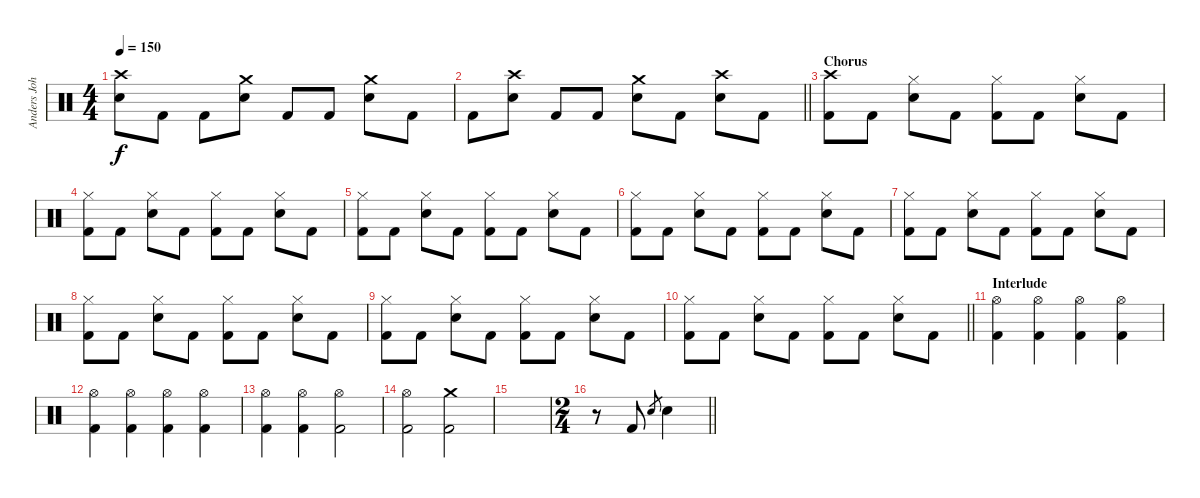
\track ("Anders Johansson" "Anders Joh") {instrument percussion}
\staff {score}
\articulation defaults
\ts (4 4)
\tempo 150
\clef neutral
\ks c
("Crash high (hit)" "Snare (hit) 2").8{dy f} "Kick (hit) 2".8 "Kick (hit) 2".8 ("Crash medium (hit)" "Snare (hit) 2").8 "Kick (hit) 2".8 "Kick (hit) 2".8 ("Crash medium (hit)" "Snare (hit) 2").8 "Kick (hit) 2".8 |
\barLineRight lightlight "Kick (hit) 2".8
("Crash high (hit)" "Snare (hit) 2").8 "Kick (hit) 2".8 "Kick (hit) 2".8 ("Crash medium (hit)" "Snare (hit) 2").8 "Kick (hit) 2".8 ("Crash high (hit)" "Snare (hit) 2").8 "Kick (hit) 2".8 |
\section ("" "Chorus")
("Crash high (hit)" "Kick (hit) 2").8 "Kick (hit) 2".8 ("Hi-Hat (closed)" "Snare (hit) 2").8 "Kick (hit) 2".8 ("Hi-Hat (closed)" "Kick (hit) 2").8 "Kick (hit) 2".8 ("Hi-Hat (closed)" "Snare (hit) 2").8 "Kick (hit) 2".8 |
("Hi-Hat (closed)" "Kick (hit) 2").8 "Kick (hit) 2".8 ("Hi-Hat (closed)" "Snare (hit) 2").8 "Kick (hit) 2".8 ("Hi-Hat (closed)" "Kick (hit) 2").8 "Kick (hit) 2".8 ("Hi-Hat (closed)" "Snare (hit) 2").8 "Kick (hit) 2".8 |
("Hi-Hat (closed)" "Kick (hit) 2").8 "Kick (hit) 2".8 ("Hi-Hat (closed)" "Snare (hit) 2").8 "Kick (hit) 2".8 ("Hi-Hat (closed)" "Kick (hit) 2").8 "Kick (hit) 2".8 ("Hi-Hat (closed)" "Snare (hit) 2").8 "Kick (hit) 2".8 |
("Hi-Hat (closed)" "Kick (hit) 2").8 "Kick (hit) 2".8 ("Hi-Hat (closed)" "Snare (hit) 2").8 "Kick (hit) 2".8 ("Hi-Hat (closed)" "Kick (hit) 2").8 "Kick (hit) 2".8 ("Hi-Hat (closed)" "Snare (hit) 2").8 "Kick (hit) 2".8 |
("Hi-Hat (closed)" "Kick (hit) 2").8 "Kick (hit) 2".8 ("Hi-Hat (closed)" "Snare (hit) 2").8 "Kick (hit) 2".8 ("Hi-Hat (closed)" "Kick (hit) 2").8 "Kick (hit) 2".8 ("Hi-Hat (closed)" "Snare (hit) 2").8 "Kick (hit) 2".8 |
("Hi-Hat (closed)" "Kick (hit) 2").8 "Kick (hit) 2".8 ("Hi-Hat (closed)" "Snare (hit) 2").8 "Kick (hit) 2".8 ("Hi-Hat (closed)" "Kick (hit) 2").8 "Kick (hit) 2".8 ("Hi-Hat (closed)" "Snare (hit) 2").8 "Kick (hit) 2".8 |
("Hi-Hat (closed)" "Kick (hit) 2").8 "Kick (hit) 2".8 ("Hi-Hat (closed)" "Snare (hit) 2").8 "Kick (hit) 2".8 ("Hi-Hat (closed)" "Kick (hit) 2").8 "Kick (hit) 2".8 ("Hi-Hat (closed)" "Snare (hit) 2").8 "Kick (hit) 2".8 |
\barLineRight lightlight
("Hi-Hat (closed)" "Kick (hit) 2").8 "Kick (hit) 2".8 ("Hi-Hat (closed)" "Snare (hit) 2").8 "Kick (hit) 2".8 ("Hi-Hat (closed)" "Kick (hit) 2").8 "Kick (hit) 2".8 ("Hi-Hat (closed)" "Snare (hit) 2").8 "Kick (hit) 2".8 |
\section ("" "Interlude")
("Hi-Hat (open)" "Kick (hit) 2").4 ("Hi-Hat (open)" "Kick (hit) 2").4 ("Hi-Hat (open)" "Kick (hit) 2").4 ("Hi-Hat (open)" "Kick (hit) 2").4 |
("Hi-Hat (open)" "Kick (hit) 2").4 ("Hi-Hat (open)" "Kick (hit) 2").4 ("Hi-Hat (open)" "Kick (hit) 2").4 ("Hi-Hat (open)" "Kick (hit) 2").4 |
("Hi-Hat (open)" "Kick (hit) 2").4 ("Hi-Hat (open)" "Kick (hit) 2").4 ("Hi-Hat (open)" "Kick (hit) 2").2 |
("Hi-Hat (open)" "Kick (hit) 2").2 ("Crash medium (hit)" "Kick (hit) 2").2 |
|
\ts (2 4)
\barLineRight lightlight
r.8 "Kick (hit) 2".8 "Snare (hit) 2".8{gr} "Snare (hit) 2".4
